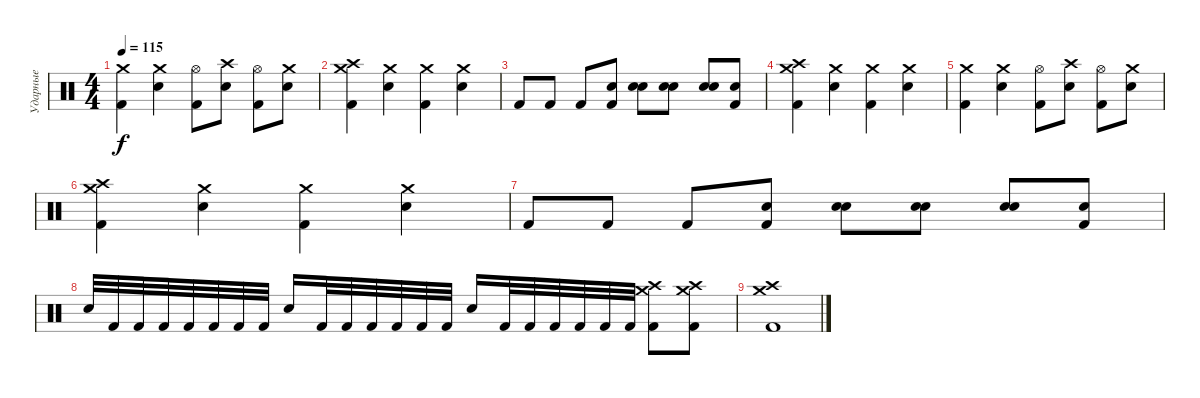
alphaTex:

\track ("Ударные" "Ударные") {instrument percussion}
\staff {score}
\articulation defaults
\ts (4 4)
\tempo 115
\clef neutral
\ks c
("Crash medium (hit)" "Kick (hit) 2").4{dy f} ("Snare (hit) 2" "Crash medium (hit)").4 ("Hi-Hat (open)" "Kick (hit) 2").8 ("Crash high (hit)" "Snare (hit) 2").8 ("Hi-Hat (open)" "Kick (hit) 2").8 ("Crash medium (hit)" "Snare (hit) 2").8 |
("Crash medium (hit)" "Crash high (hit)" "Kick (hit) 2").4 ("Snare (hit) 2" "Crash medium (hit)").4 ("Crash medium (hit)" "Kick (hit) 2").4 ("Snare (hit) 2" "Crash medium (hit)").4 |
"Kick (hit) 2".8 "Kick (hit) 2".8 "Kick (hit) 2".8 ("Snare (hit) 2" "Kick (hit) 2").8 ("Snare (hit) 2" "Snare (hit) 2").8 ("Snare (hit) 2" "Snare (hit) 2").8 ("Snare (hit) 2" "Snare (hit) 2").8 ("Snare (hit) 2" "Kick (hit) 2").8 |
("Crash medium (hit)" "Crash high (hit)" "Kick (hit) 2").4 ("Snare (hit) 2" "Crash medium (hit)").4 ("Crash medium (hit)" "Kick (hit) 2").4 ("Snare (hit) 2" "Crash medium (hit)").4 |
("Crash medium (hit)" "Kick (hit) 2").4 ("Snare (hit) 2" "Crash medium (hit)").4 ("Hi-Hat (open)" "Kick (hit) 2").8 ("Crash high (hit)" "Snare (hit) 2").8 ("Hi-Hat (open)" "Kick (hit) 2").8 ("Crash medium (hit)" "Snare (hit) 2").8 |
("Crash medium (hit)" "Crash high (hit)" "Kick (hit) 2").4 ("Snare (hit) 2" "Crash medium (hit)").4 ("Crash medium (hit)" "Kick (hit) 2").4 ("Snare (hit) 2" "Crash medium (hit)").4 |
"Kick (hit) 2".8 "Kick (hit) 2".8 "Kick (hit) 2".8 ("Snare (hit) 2" "Kick (hit) 2").8 ("Snare (hit) 2" "Snare (hit) 2").8 ("Snare (hit) 2" "Snare (hit) 2").8 ("Snare (hit) 2" "Snare (hit) 2").8 ("Snare (hit) 2" "Kick (hit) 2").8 |
"Snare (hit) 2".32 "Kick (hit) 2".32 "Kick (hit) 2".32 "Kick (hit) 2".32 "Kick (hit) 2".32 "Kick (hit) 2".32 "Kick (hit) 2".32 "Kick (hit) 2".32 "Snare (hit) 2".16 "Kick (hit) 2".32 "Kick (hit) 2".32 "Kick (hit) 2".32 "Kick (hit) 2".32 "Kick (hit) 2".32 "Kick (hit) 2".32 "Snare (hit) 2".16 "Kick (hit) 2".32 "Kick (hit) 2".32 "Kick (hit) 2".32 "Kick (hit) 2".32 "Kick (hit) 2".32 "Kick (hit) 2".32 ("Crash medium (hit)" "Crash high (hit)" "Kick (hit) 2").8 ("Crash medium (hit)" "Crash high (hit)" "Kick (hit) 2").8 |
("Crash medium (hit)" "Crash high (hit)" "Kick (hit) 2").1
